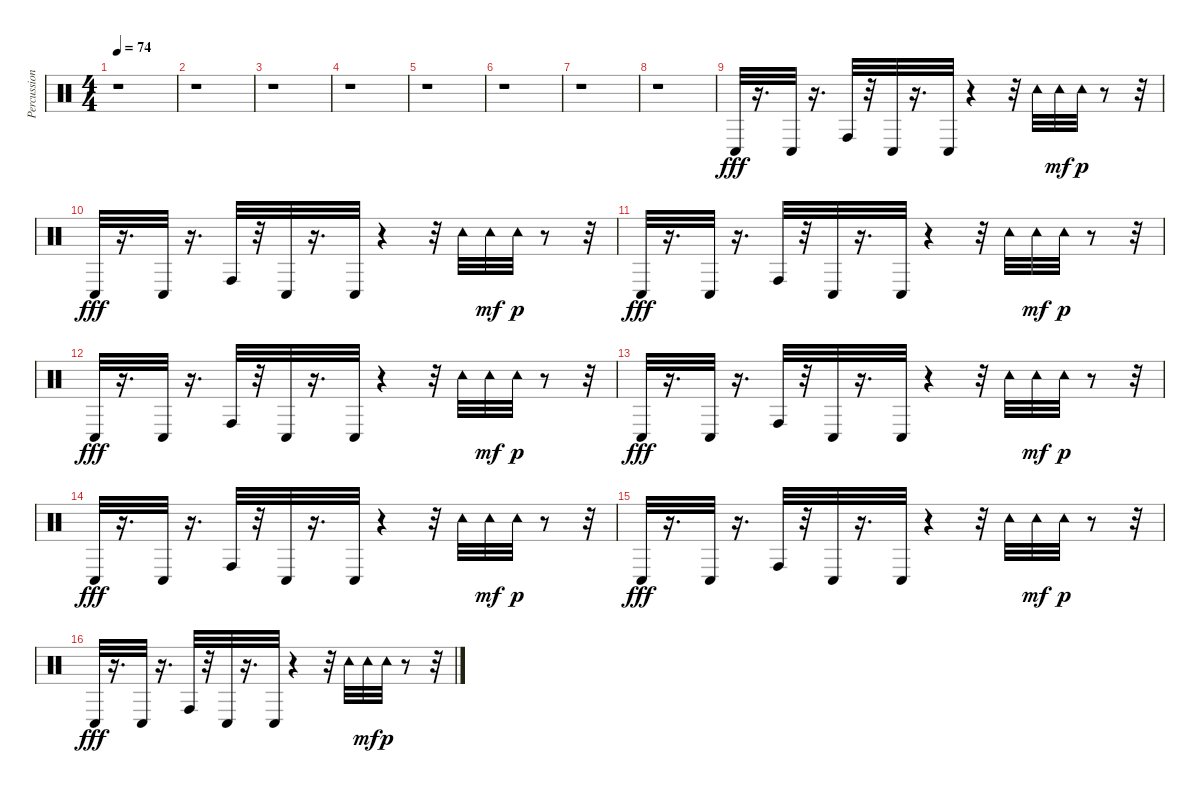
\track ("Percussion" "Percussion") {instrument percussion}
\staff {score}
\articulation defaults
\ts (4 4)
\tempo 74
\clef neutral
\ks c
r.1{dy fff} |
r.1 |
r.1 |
r.1 |
r.1 |
r.1 |
r.1 |
r.1 |
"Conga low (hit)".32 r.16{d} "Conga low (hit)".32 r.16{d} "Conga high (hit)".32 r.32 "Conga low (hit)".32 r.16{d} "Conga low (hit)".32 r.4 r.32 "Tambourine (hit)".32 "Tambourine (hit)".32{dy mf} "Tambourine (hit)".32{dy p} r.8 r.32 |
"Conga low (hit)".32{dy fff} r.16{d} "Conga low (hit)".32 r.16{d} "Conga high (hit)".32 r.32 "Conga low (hit)".32 r.16{d} "Conga low (hit)".32 r.4 r.32 "Tambourine (hit)".32 "Tambourine (hit)".32{dy mf} "Tambourine (hit)".32{dy p} r.8 r.32 |
"Conga low (hit)".32{dy fff} r.16{d} "Conga low (hit)".32 r.16{d} "Conga high (hit)".32 r.32 "Conga low (hit)".32 r.16{d} "Conga low (hit)".32 r.4 r.32 "Tambourine (hit)".32 "Tambourine (hit)".32{dy mf} "Tambourine (hit)".32{dy p} r.8 r.32 |
"Conga low (hit)".32{dy fff} r.16{d} "Conga low (hit)".32 r.16{d} "Conga high (hit)".32 r.32 "Conga low (hit)".32 r.16{d} "Conga low (hit)".32 r.4 r.32 "Tambourine (hit)".32 "Tambourine (hit)".32{dy mf} "Tambourine (hit)".32{dy p} r.8 r.32 |
"Conga low (hit)".32{dy fff} r.16{d} "Conga low (hit)".32 r.16{d} "Conga high (hit)".32 r.32 "Conga low (hit)".32 r.16{d} "Conga low (hit)".32 r.4 r.32 "Tambourine (hit)".32 "Tambourine (hit)".32{dy mf} "Tambourine (hit)".32{dy p} r.8 r.32 |
"Conga low (hit)".32{dy fff} r.16{d} "Conga low (hit)".32 r.16{d} "Conga high (hit)".32 r.32 "Conga low (hit)".32 r.16{d} "Conga low (hit)".32 r.4 r.32 "Tambourine (hit)".32 "Tambourine (hit)".32{dy mf} "Tambourine (hit)".32{dy p} r.8 r.32 |
"Conga low (hit)".32{dy fff} r.16{d} "Conga low (hit)".32 r.16{d} "Conga high (hit)".32 r.32 "Conga low (hit)".32 r.16{d} "Conga low (hit)".32 r.4 r.32 "Tambourine (hit)".32 "Tambourine (hit)".32{dy mf} "Tambourine (hit)".32{dy p} r.8 r.32 |
"Conga low (hit)".32{dy fff} r.16{d} "Conga low (hit)".32 r.16{d} "Conga high (hit)".32 r.32 "Conga low (hit)".32 r.16{d} "Conga low (hit)".32 r.4 r.32 "Tambourine (hit)".32 "Tambourine (hit)".32{dy mf} "Tambourine (hit)".32{dy p} r.8 r.32
